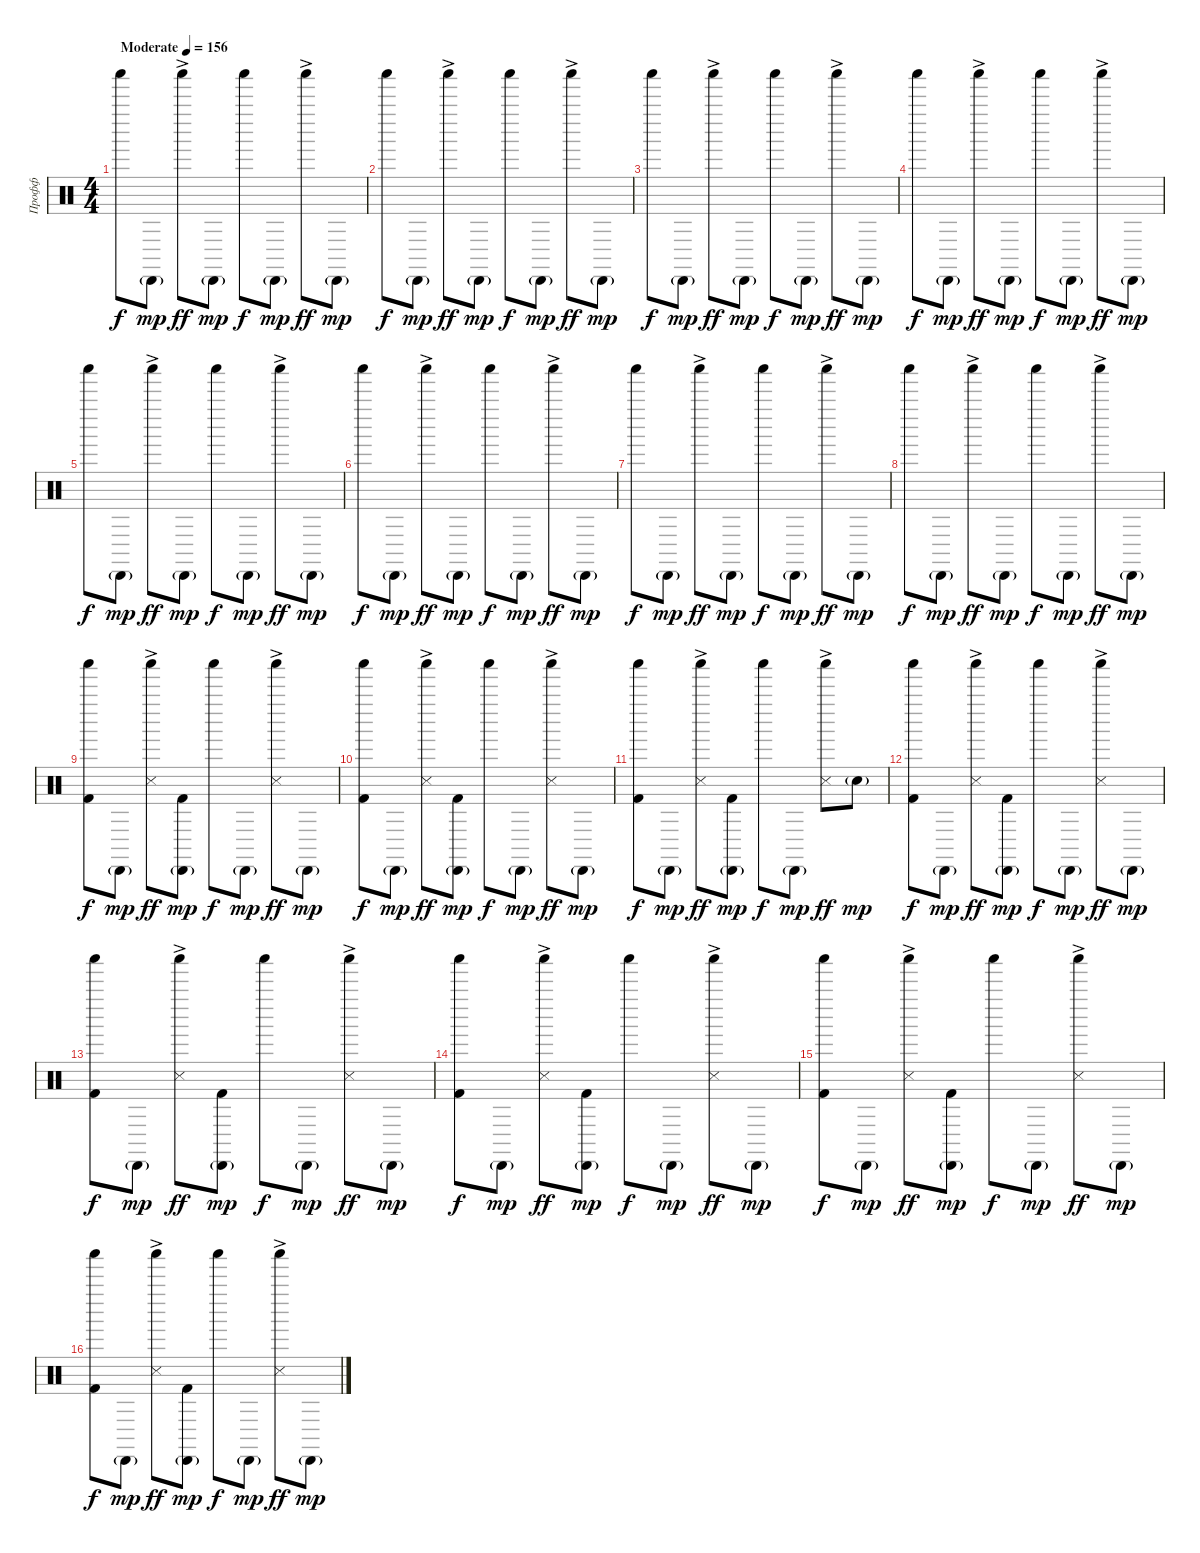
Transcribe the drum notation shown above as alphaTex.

\track ("Профф" "Профф") {instrument percussion}
\staff {score}
\articulation defaults
\ts (4 4)
\tempo (156 "Moderate")
\clef neutral
\ks c "Shaker (hit)".8{dy f} "Cabasa (hit)"{g}.8{dy mp} "Shaker (hit)"{ac}.8{dy ff} "Cabasa (hit)"{g}.8{dy mp} "Shaker (hit)".8{dy f} "Cabasa (hit)"{g}.8{dy mp} "Shaker (hit)"{ac}.8{dy ff} "Cabasa (hit)"{g}.8{dy mp}
|
"Shaker (hit)".8{dy f} "Cabasa (hit)"{g}.8{dy mp} "Shaker (hit)"{ac}.8{dy ff} "Cabasa (hit)"{g}.8{dy mp} "Shaker (hit)".8{dy f} "Cabasa (hit)"{g}.8{dy mp} "Shaker (hit)"{ac}.8{dy ff} "Cabasa (hit)"{g}.8{dy mp} |
"Shaker (hit)".8{dy f} "Cabasa (hit)"{g}.8{dy mp} "Shaker (hit)"{ac}.8{dy ff} "Cabasa (hit)"{g}.8{dy mp} "Shaker (hit)".8{dy f} "Cabasa (hit)"{g}.8{dy mp} "Shaker (hit)"{ac}.8{dy ff} "Cabasa (hit)"{g}.8{dy mp} |
"Shaker (hit)".8{dy f} "Cabasa (hit)"{g}.8{dy mp} "Shaker (hit)"{ac}.8{dy ff} "Cabasa (hit)"{g}.8{dy mp} "Shaker (hit)".8{dy f} "Cabasa (hit)"{g}.8{dy mp} "Shaker (hit)"{ac}.8{dy ff} "Cabasa (hit)"{g}.8{dy mp} |
"Shaker (hit)".8{dy f} "Cabasa (hit)"{g}.8{dy mp} "Shaker (hit)"{ac}.8{dy ff} "Cabasa (hit)"{g}.8{dy mp} "Shaker (hit)".8{dy f} "Cabasa (hit)"{g}.8{dy mp} "Shaker (hit)"{ac}.8{dy ff} "Cabasa (hit)"{g}.8{dy mp} |
"Shaker (hit)".8{dy f} "Cabasa (hit)"{g}.8{dy mp} "Shaker (hit)"{ac}.8{dy ff} "Cabasa (hit)"{g}.8{dy mp} "Shaker (hit)".8{dy f} "Cabasa (hit)"{g}.8{dy mp} "Shaker (hit)"{ac}.8{dy ff} "Cabasa (hit)"{g}.8{dy mp} |
"Shaker (hit)".8{dy f} "Cabasa (hit)"{g}.8{dy mp} "Shaker (hit)"{ac}.8{dy ff} "Cabasa (hit)"{g}.8{dy mp} "Shaker (hit)".8{dy f} "Cabasa (hit)"{g}.8{dy mp} "Shaker (hit)"{ac}.8{dy ff} "Cabasa (hit)"{g}.8{dy mp} |
"Shaker (hit)".8{dy f} "Cabasa (hit)"{g}.8{dy mp} "Shaker (hit)"{ac}.8{dy ff} "Cabasa (hit)"{g}.8{dy mp} "Shaker (hit)".8{dy f} "Cabasa (hit)"{g}.8{dy mp} "Shaker (hit)"{ac}.8{dy ff} "Cabasa (hit)"{g}.8{dy mp} |
("Shaker (hit)" "Kick (hit) 2").8{dy f} "Cabasa (hit)"{g}.8{dy mp} ("Shaker (hit)"{ac} "Snare (side stick) 3").8{dy ff} ("Cabasa (hit)"{g} "Kick (hit) 2").8{dy mp} "Shaker (hit)".8{dy f} "Cabasa (hit)"{g}.8{dy mp} ("Shaker (hit)"{ac} "Snare (side stick) 3").8{dy ff} "Cabasa (hit)"{g}.8{dy mp} |
("Shaker (hit)" "Kick (hit) 2").8{dy f} "Cabasa (hit)"{g}.8{dy mp} ("Shaker (hit)"{ac} "Snare (side stick) 3").8{dy ff} ("Cabasa (hit)"{g} "Kick (hit) 2").8{dy mp} "Shaker (hit)".8{dy f} "Cabasa (hit)"{g}.8{dy mp} ("Shaker (hit)"{ac} "Snare (side stick) 3").8{dy ff} "Cabasa (hit)"{g}.8{dy mp} |
("Shaker (hit)" "Kick (hit) 2").8{dy f} "Cabasa (hit)"{g}.8{dy mp} ("Shaker (hit)"{ac} "Snare (side stick) 3").8{dy ff} ("Cabasa (hit)"{g} "Kick (hit) 2").8{dy mp} "Shaker (hit)".8{dy f} "Cabasa (hit)"{g}.8{dy mp} ("Shaker (hit)"{ac} "Snare (side stick) 3").8{dy ff} "Snare (hit)"{g}.8{dy mp} |
("Shaker (hit)" "Kick (hit) 2").8{dy f} "Cabasa (hit)"{g}.8{dy mp} ("Shaker (hit)"{ac} "Snare (side stick) 3").8{dy ff} ("Cabasa (hit)"{g} "Kick (hit) 2").8{dy mp} "Shaker (hit)".8{dy f} "Cabasa (hit)"{g}.8{dy mp} ("Shaker (hit)"{ac} "Snare (side stick) 3").8{dy ff} "Cabasa (hit)"{g}.8{dy mp} |
("Shaker (hit)" "Kick (hit) 2").8{dy f} "Cabasa (hit)"{g}.8{dy mp} ("Shaker (hit)"{ac} "Snare (side stick) 3").8{dy ff} ("Cabasa (hit)"{g} "Kick (hit) 2").8{dy mp} "Shaker (hit)".8{dy f} "Cabasa (hit)"{g}.8{dy mp} ("Shaker (hit)"{ac} "Snare (side stick) 3").8{dy ff} "Cabasa (hit)"{g}.8{dy mp} |
("Shaker (hit)" "Kick (hit) 2").8{dy f} "Cabasa (hit)"{g}.8{dy mp} ("Shaker (hit)"{ac} "Snare (side stick) 3").8{dy ff} ("Cabasa (hit)"{g} "Kick (hit) 2").8{dy mp} "Shaker (hit)".8{dy f} "Cabasa (hit)"{g}.8{dy mp} ("Shaker (hit)"{ac} "Snare (side stick) 3").8{dy ff} "Cabasa (hit)"{g}.8{dy mp} |
("Shaker (hit)" "Kick (hit) 2").8{dy f} "Cabasa (hit)"{g}.8{dy mp} ("Shaker (hit)"{ac} "Snare (side stick) 3").8{dy ff} ("Cabasa (hit)"{g} "Kick (hit) 2").8{dy mp} "Shaker (hit)".8{dy f} "Cabasa (hit)"{g}.8{dy mp} ("Shaker (hit)"{ac} "Snare (side stick) 3").8{dy ff} "Cabasa (hit)"{g}.8{dy mp} |
("Shaker (hit)" "Kick (hit) 2").8{dy f} "Cabasa (hit)"{g}.8{dy mp} ("Shaker (hit)"{ac} "Snare (side stick) 3").8{dy ff} ("Cabasa (hit)"{g} "Kick (hit) 2").8{dy mp} "Shaker (hit)".8{dy f} "Cabasa (hit)"{g}.8{dy mp} ("Shaker (hit)"{ac} "Snare (side stick) 3").8{dy ff} "Cabasa (hit)"{g}.8{dy mp}
